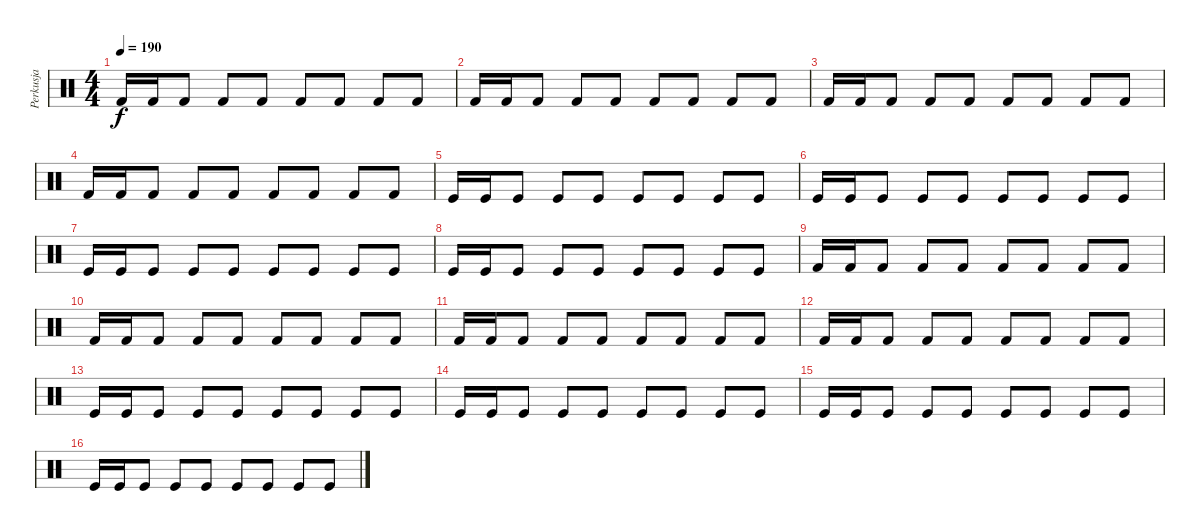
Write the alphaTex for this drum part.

\track ("Perkusja" "Perkusja") {instrument percussion}
\staff {score}
\articulation defaults
\ts (4 4)
\tempo 190
\clef neutral
\ks c "Kick (hit) 2".16{dy f} "Kick (hit) 2".16 "Kick (hit) 2".8 "Kick (hit) 2".8 "Kick (hit) 2".8 "Kick (hit) 2".8 "Kick (hit) 2".8 "Kick (hit) 2".8 "Kick (hit) 2".8
|
"Kick (hit) 2".16 "Kick (hit) 2".16 "Kick (hit) 2".8 "Kick (hit) 2".8 "Kick (hit) 2".8 "Kick (hit) 2".8 "Kick (hit) 2".8 "Kick (hit) 2".8 "Kick (hit) 2".8 |
"Kick (hit) 2".16 "Kick (hit) 2".16 "Kick (hit) 2".8 "Kick (hit) 2".8 "Kick (hit) 2".8 "Kick (hit) 2".8 "Kick (hit) 2".8 "Kick (hit) 2".8 "Kick (hit) 2".8 |
"Kick (hit) 2".16 "Kick (hit) 2".16 "Kick (hit) 2".8 "Kick (hit) 2".8 "Kick (hit) 2".8 "Kick (hit) 2".8 "Kick (hit) 2".8 "Kick (hit) 2".8 "Kick (hit) 2".8 |
"Kick (hit)".16 "Kick (hit)".16 "Kick (hit)".8 "Kick (hit)".8 "Kick (hit)".8 "Kick (hit)".8 "Kick (hit)".8 "Kick (hit)".8 "Kick (hit)".8 |
"Kick (hit)".16 "Kick (hit)".16 "Kick (hit)".8 "Kick (hit)".8 "Kick (hit)".8 "Kick (hit)".8 "Kick (hit)".8 "Kick (hit)".8 "Kick (hit)".8 |
"Kick (hit)".16 "Kick (hit)".16 "Kick (hit)".8 "Kick (hit)".8 "Kick (hit)".8 "Kick (hit)".8 "Kick (hit)".8 "Kick (hit)".8 "Kick (hit)".8 |
"Kick (hit)".16 "Kick (hit)".16 "Kick (hit)".8 "Kick (hit)".8 "Kick (hit)".8 "Kick (hit)".8 "Kick (hit)".8 "Kick (hit)".8 "Kick (hit)".8 |
"Kick (hit) 2".16 "Kick (hit) 2".16 "Kick (hit) 2".8 "Kick (hit) 2".8 "Kick (hit) 2".8 "Kick (hit) 2".8 "Kick (hit) 2".8 "Kick (hit) 2".8 "Kick (hit) 2".8 |
"Kick (hit) 2".16 "Kick (hit) 2".16 "Kick (hit) 2".8 "Kick (hit) 2".8 "Kick (hit) 2".8 "Kick (hit) 2".8 "Kick (hit) 2".8 "Kick (hit) 2".8 "Kick (hit) 2".8 |
"Kick (hit) 2".16 "Kick (hit) 2".16 "Kick (hit) 2".8 "Kick (hit) 2".8 "Kick (hit) 2".8 "Kick (hit) 2".8 "Kick (hit) 2".8 "Kick (hit) 2".8 "Kick (hit) 2".8 |
"Kick (hit) 2".16 "Kick (hit) 2".16 "Kick (hit) 2".8 "Kick (hit) 2".8 "Kick (hit) 2".8 "Kick (hit) 2".8 "Kick (hit) 2".8 "Kick (hit) 2".8 "Kick (hit) 2".8 |
"Kick (hit)".16 "Kick (hit)".16 "Kick (hit)".8 "Kick (hit)".8 "Kick (hit)".8 "Kick (hit)".8 "Kick (hit)".8 "Kick (hit)".8 "Kick (hit)".8 |
"Kick (hit)".16 "Kick (hit)".16 "Kick (hit)".8 "Kick (hit)".8 "Kick (hit)".8 "Kick (hit)".8 "Kick (hit)".8 "Kick (hit)".8 "Kick (hit)".8 |
"Kick (hit)".16 "Kick (hit)".16 "Kick (hit)".8 "Kick (hit)".8 "Kick (hit)".8 "Kick (hit)".8 "Kick (hit)".8 "Kick (hit)".8 "Kick (hit)".8 |
"Kick (hit)".16 "Kick (hit)".16 "Kick (hit)".8 "Kick (hit)".8 "Kick (hit)".8 "Kick (hit)".8 "Kick (hit)".8 "Kick (hit)".8 "Kick (hit)".8
